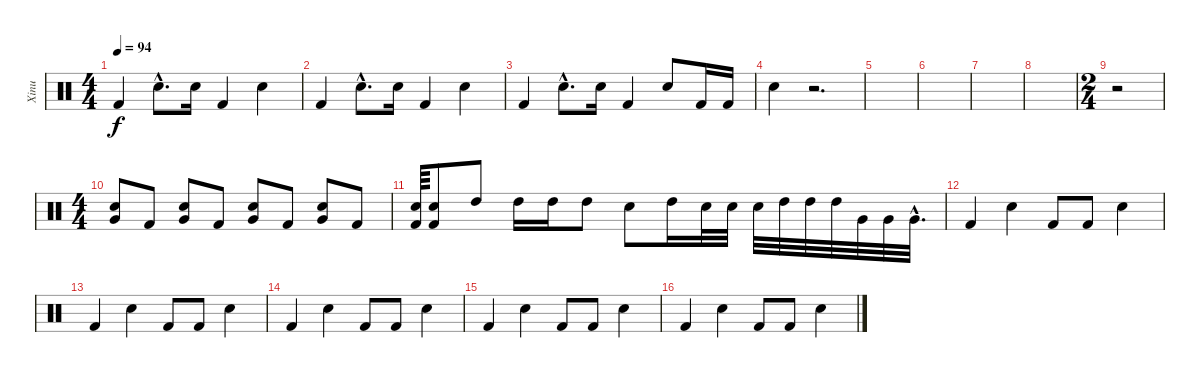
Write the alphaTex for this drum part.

\track ("Xinu" "Xinu") {instrument percussion}
\staff {score}
\articulation defaults
\ts (4 4)
\tempo 94
\clef neutral
\ks c "Kick (hit) 2".4{dy f} "Snare (hit) 2"{hac}.8{d} "Snare (hit) 2".16 "Kick (hit) 2".4 "Snare (hit) 2".4
|
"Kick (hit) 2".4 "Snare (hit) 2"{hac}.8{d} "Snare (hit) 2".16 "Kick (hit) 2".4 "Snare (hit) 2".4 |
"Kick (hit) 2".4 "Snare (hit) 2"{hac}.8{d} "Snare (hit) 2".16 "Kick (hit) 2".4 "Snare (hit) 2".8 "Kick (hit) 2".16 "Kick (hit) 2".16 |
"Snare (hit) 2".4 r.2{d} |
|
|
|
|
\ts (2 4)
r.2 |
\ts (4 4)
("Snare (hit) 2" "Very Low Tom (hit)").8 "Kick (hit) 2".8 ("Snare (hit) 2" "Very Low Tom (hit)").8 "Kick (hit) 2".8 ("Snare (hit) 2" "Very Low Tom (hit)").8 "Kick (hit) 2".8 ("Snare (hit) 2" "Very Low Tom (hit)").8 "Kick (hit) 2".8 |
("Snare (hit) 2" "Kick (hit) 2").64 ("Snare (hit) 2" "Kick (hit) 2").8 "High Tom (hit)".8 "High Tom (hit)".16 "High Tom (hit)".16 "High Tom (hit)".8 "Snare (hit) 2".8 "High Tom (hit)".16 "Snare (hit) 2".32 "Snare (hit) 2".32 "Snare (hit) 2".32 "High Tom (hit)".32 "High Tom (hit)".32 "High Tom (hit)".32 "Very Low Tom (hit)".32 "Very Low Tom (hit)".32 "Very Low Tom (hit)"{hac}.32{d} |
"Kick (hit) 2".4 "Snare (hit) 2".4 "Kick (hit) 2".8 "Kick (hit) 2".8 "Snare (hit) 2".4 |
"Kick (hit) 2".4 "Snare (hit) 2".4 "Kick (hit) 2".8 "Kick (hit) 2".8 "Snare (hit) 2".4 |
"Kick (hit) 2".4 "Snare (hit) 2".4 "Kick (hit) 2".8 "Kick (hit) 2".8 "Snare (hit) 2".4 |
"Kick (hit) 2".4 "Snare (hit) 2".4 "Kick (hit) 2".8 "Kick (hit) 2".8 "Snare (hit) 2".4 |
"Kick (hit) 2".4 "Snare (hit) 2".4 "Kick (hit) 2".8 "Kick (hit) 2".8 "Snare (hit) 2".4
